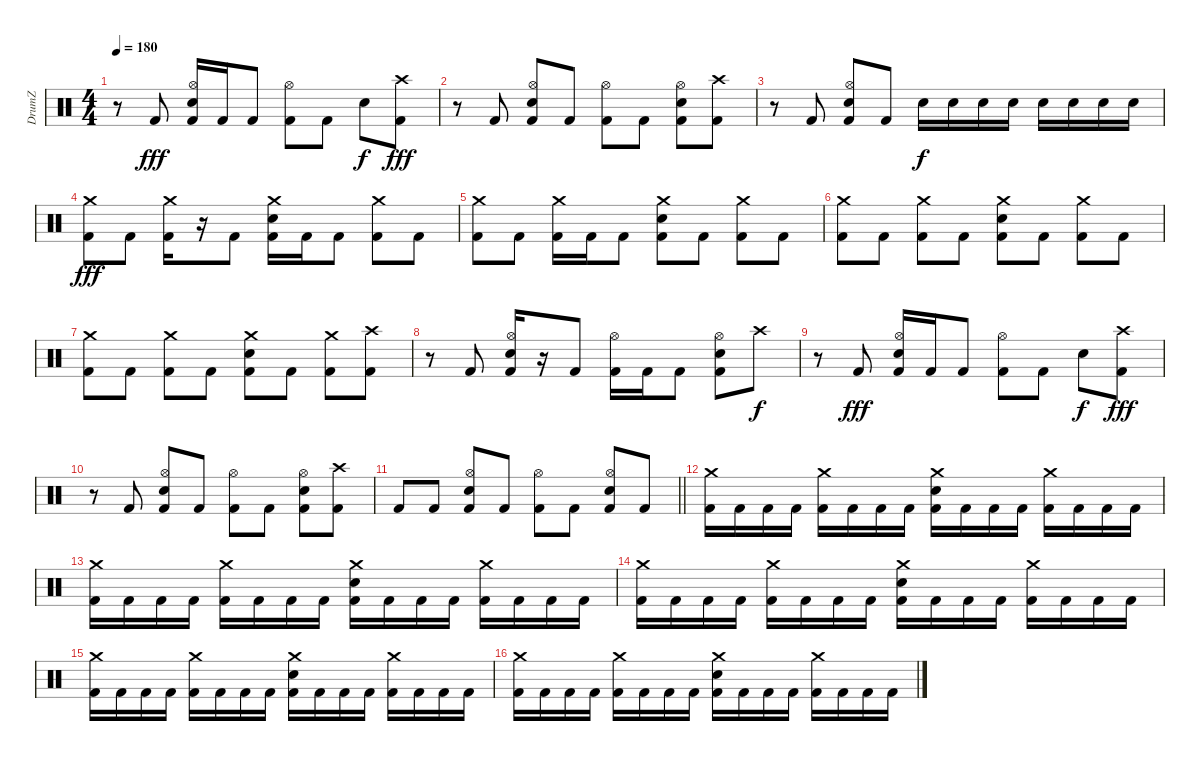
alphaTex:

\track ("DrumZ" "DrumZ") {instrument percussion}
\staff {score}
\articulation defaults
\ts (4 4)
\tempo 180
\clef neutral
\ks c
r.8{dy f} "Kick (hit) 2".8{dy fff} ("Hi-Hat (open)" "Electric Snare (hit)" "Kick (hit) 2").16 "Kick (hit) 2".16 "Kick (hit) 2".8 ("Hi-Hat (open)" "Kick (hit) 2").8 "Kick (hit) 2".8 "Electric Snare (hit)".8{dy f} ("Crash high (hit)" "Kick (hit) 2").8{dy fff} |
r.8 "Kick (hit) 2".8 ("Hi-Hat (open)" "Electric Snare (hit)" "Kick (hit) 2").8 "Kick (hit) 2".8 ("Hi-Hat (open)" "Kick (hit) 2").8 "Kick (hit) 2".8 ("Hi-Hat (open)" "Electric Snare (hit)" "Kick (hit) 2").8 ("Crash high (hit)" "Kick (hit) 2").8 |
r.8 "Kick (hit) 2".8 ("Hi-Hat (open)" "Electric Snare (hit)" "Kick (hit) 2").8 "Kick (hit) 2".8 "Electric Snare (hit)".16{dy f} "Electric Snare (hit)".16 "Electric Snare (hit)".16 "Electric Snare (hit)".16 "Electric Snare (hit)".16 "Electric Snare (hit)".16 "Electric Snare (hit)".16 "Electric Snare (hit)".16 |
("Crash medium (hit)" "Kick (hit) 2").8{dy fff} "Kick (hit) 2".8 ("Crash medium (hit)" "Kick (hit) 2").16 r.16 "Kick (hit) 2".8 ("Crash medium (hit)" "Electric Snare (hit)" "Kick (hit) 2").16 "Kick (hit) 2".16 "Kick (hit) 2".8 ("Crash medium (hit)" "Kick (hit) 2").8 "Kick (hit) 2".8 |
("Crash medium (hit)" "Kick (hit) 2").8 "Kick (hit) 2".8 ("Crash medium (hit)" "Kick (hit) 2").16 "Kick (hit) 2".16 "Kick (hit) 2".8 ("Crash medium (hit)" "Electric Snare (hit)" "Kick (hit) 2").8 "Kick (hit) 2".8 ("Crash medium (hit)" "Kick (hit) 2").8 "Kick (hit) 2".8 |
("Crash medium (hit)" "Kick (hit) 2").8 "Kick (hit) 2".8 ("Crash medium (hit)" "Kick (hit) 2").8 "Kick (hit) 2".8 ("Crash medium (hit)" "Electric Snare (hit)" "Kick (hit) 2").8 "Kick (hit) 2".8 ("Crash medium (hit)" "Kick (hit) 2").8 "Kick (hit) 2".8 |
("Crash medium (hit)" "Kick (hit) 2").8 "Kick (hit) 2".8 ("Crash medium (hit)" "Kick (hit) 2").8 "Kick (hit) 2".8 ("Crash medium (hit)" "Electric Snare (hit)" "Kick (hit) 2").8 "Kick (hit) 2".8 ("Crash medium (hit)" "Kick (hit) 2").8 ("Crash high (hit)" "Kick (hit) 2").8 |
r.8 "Kick (hit) 2".8 ("Hi-Hat (open)" "Electric Snare (hit)" "Kick (hit) 2").16 r.16 "Kick (hit) 2".8 ("Hi-Hat (open)" "Kick (hit) 2").16 "Kick (hit) 2".16 "Kick (hit) 2".8 ("Hi-Hat (open)" "Electric Snare (hit)" "Kick (hit) 2").8 "Crash high (hit)".8{dy f} |
r.8 "Kick (hit) 2".8{dy fff} ("Hi-Hat (open)" "Electric Snare (hit)" "Kick (hit) 2").16 "Kick (hit) 2".16 "Kick (hit) 2".8 ("Hi-Hat (open)" "Kick (hit) 2").8 "Kick (hit) 2".8 "Electric Snare (hit)".8{dy f} ("Crash high (hit)" "Kick (hit) 2").8{dy fff} |
r.8 "Kick (hit) 2".8 ("Hi-Hat (open)" "Electric Snare (hit)" "Kick (hit) 2").8 "Kick (hit) 2".8 ("Hi-Hat (open)" "Kick (hit) 2").8 "Kick (hit) 2".8 ("Hi-Hat (open)" "Electric Snare (hit)" "Kick (hit) 2").8 ("Crash high (hit)" "Kick (hit) 2").8 |
\barLineRight lightlight "Kick (hit) 2".8 "Kick (hit) 2".8
("Hi-Hat (open)" "Electric Snare (hit)" "Kick (hit) 2").8 "Kick (hit) 2".8 ("Hi-Hat (open)" "Kick (hit) 2").8 "Kick (hit) 2".8 ("Hi-Hat (open)" "Electric Snare (hit)" "Kick (hit) 2").8 "Kick (hit) 2".8 |
\section ("" "")
("Crash medium (hit)" "Kick (hit) 2").16 "Kick (hit) 2".16 "Kick (hit) 2".16 "Kick (hit) 2".16 ("Crash medium (hit)" "Kick (hit) 2").16 "Kick (hit) 2".16 "Kick (hit) 2".16 "Kick (hit) 2".16 ("Crash medium (hit)" "Electric Snare (hit)" "Kick (hit) 2").16 "Kick (hit) 2".16 "Kick (hit) 2".16 "Kick (hit) 2".16 ("Crash medium (hit)" "Kick (hit) 2").16 "Kick (hit) 2".16 "Kick (hit) 2".16 "Kick (hit) 2".16 |
("Crash medium (hit)" "Kick (hit) 2").16 "Kick (hit) 2".16 "Kick (hit) 2".16 "Kick (hit) 2".16 ("Crash medium (hit)" "Kick (hit) 2").16 "Kick (hit) 2".16 "Kick (hit) 2".16 "Kick (hit) 2".16 ("Crash medium (hit)" "Electric Snare (hit)" "Kick (hit) 2").16 "Kick (hit) 2".16 "Kick (hit) 2".16 "Kick (hit) 2".16 ("Crash medium (hit)" "Kick (hit) 2").16 "Kick (hit) 2".16 "Kick (hit) 2".16 "Kick (hit) 2".16 |
("Crash medium (hit)" "Kick (hit) 2").16 "Kick (hit) 2".16 "Kick (hit) 2".16 "Kick (hit) 2".16 ("Crash medium (hit)" "Kick (hit) 2").16 "Kick (hit) 2".16 "Kick (hit) 2".16 "Kick (hit) 2".16 ("Crash medium (hit)" "Electric Snare (hit)" "Kick (hit) 2").16 "Kick (hit) 2".16 "Kick (hit) 2".16 "Kick (hit) 2".16 ("Crash medium (hit)" "Kick (hit) 2").16 "Kick (hit) 2".16 "Kick (hit) 2".16 "Kick (hit) 2".16 |
("Crash medium (hit)" "Kick (hit) 2").16 "Kick (hit) 2".16 "Kick (hit) 2".16 "Kick (hit) 2".16 ("Crash medium (hit)" "Kick (hit) 2").16 "Kick (hit) 2".16 "Kick (hit) 2".16 "Kick (hit) 2".16 ("Crash medium (hit)" "Electric Snare (hit)" "Kick (hit) 2").16 "Kick (hit) 2".16 "Kick (hit) 2".16 "Kick (hit) 2".16 ("Crash medium (hit)" "Kick (hit) 2").16 "Kick (hit) 2".16 "Kick (hit) 2".16 "Kick (hit) 2".16 |
("Crash medium (hit)" "Kick (hit) 2").16 "Kick (hit) 2".16 "Kick (hit) 2".16 "Kick (hit) 2".16 ("Crash medium (hit)" "Kick (hit) 2").16 "Kick (hit) 2".16 "Kick (hit) 2".16 "Kick (hit) 2".16 ("Crash medium (hit)" "Electric Snare (hit)" "Kick (hit) 2").16 "Kick (hit) 2".16 "Kick (hit) 2".16 "Kick (hit) 2".16 ("Crash medium (hit)" "Kick (hit) 2").16 "Kick (hit) 2".16 "Kick (hit) 2".16 "Kick (hit) 2".16
